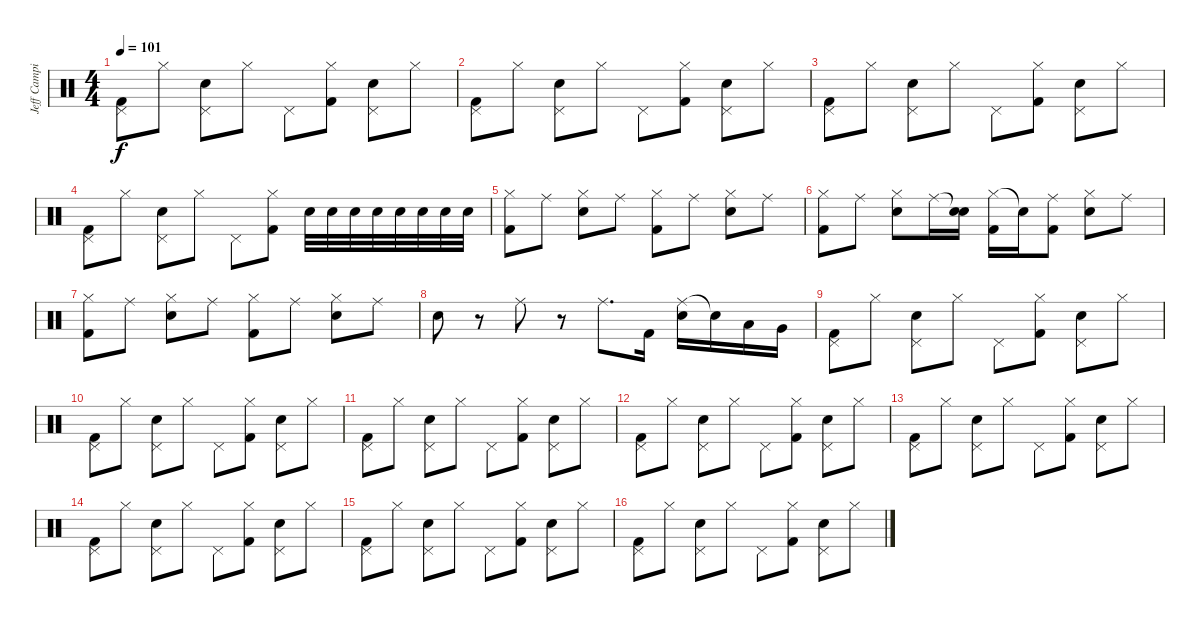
\track ("Jeff Campitelli " "Jeff Campi") {instrument percussion}
\staff {score}
\articulation defaults
\ts (4 4)
\tempo 101
\clef neutral
\ks c
("Pedal Hi-Hat (hit)" "Kick (hit) 2").8{dy f} "Hi-Hat (closed)".8 ("Pedal Hi-Hat (hit)" "Electric Snare (hit)").8 "Hi-Hat (closed)".8 "Pedal Hi-Hat (hit)".8 ("Hi-Hat (closed)" "Kick (hit) 2").8 ("Pedal Hi-Hat (hit)" "Electric Snare (hit)").8 "Hi-Hat (closed)".8 |
("Pedal Hi-Hat (hit)" "Kick (hit) 2").8 "Hi-Hat (closed)".8 ("Pedal Hi-Hat (hit)" "Electric Snare (hit)").8 "Hi-Hat (closed)".8 "Pedal Hi-Hat (hit)".8 ("Hi-Hat (closed)" "Kick (hit) 2").8 ("Pedal Hi-Hat (hit)" "Electric Snare (hit)").8 "Hi-Hat (closed)".8 |
("Pedal Hi-Hat (hit)" "Kick (hit) 2").8 "Hi-Hat (closed)".8 ("Pedal Hi-Hat (hit)" "Electric Snare (hit)").8 "Hi-Hat (closed)".8 "Pedal Hi-Hat (hit)".8 ("Hi-Hat (closed)" "Kick (hit) 2").8 ("Pedal Hi-Hat (hit)" "Electric Snare (hit)").8 "Hi-Hat (closed)".8 |
("Pedal Hi-Hat (hit)" "Kick (hit) 2").8 "Hi-Hat (closed)".8 ("Pedal Hi-Hat (hit)" "Electric Snare (hit)").8 "Hi-Hat (closed)".8 "Pedal Hi-Hat (hit)".8 ("Hi-Hat (closed)" "Kick (hit) 2").8 "Electric Snare (hit)".32 "Electric Snare (hit)".32 "Electric Snare (hit)".32 "Electric Snare (hit)".32 "Electric Snare (hit)".32 "Electric Snare (hit)".32 "Electric Snare (hit)".32 "Electric Snare (hit)".32 |
("Hi-Hat (closed)" "Kick (hit) 2").8 "Ride (middle)".8 ("Hi-Hat (closed)" "Electric Snare (hit)").8 "Ride (middle)".8 ("Hi-Hat (closed)" "Kick (hit) 2").8 "Ride (middle)".8 ("Hi-Hat (closed)" "Electric Snare (hit)").8 "Ride (middle)".8 |
("Hi-Hat (closed)" "Kick (hit) 2").8 "Ride (middle)".8 ("Hi-Hat (closed)" "Electric Snare (hit)").8 "Ride (middle)".16 ("Snare (hit)"{t} "Electric Snare (hit)").16 ("Hi-Hat (closed)" "Kick (hit) 2").16 "Snare (hit)"{t}.16 ("Ride (middle)" "Kick (hit) 2").8 ("Hi-Hat (closed)" "Electric Snare (hit)").8 "Ride (middle)".8 |
("Hi-Hat (closed)" "Kick (hit) 2").8 "Ride (middle)".8 ("Hi-Hat (closed)" "Electric Snare (hit)").8 "Ride (middle)".8 ("Hi-Hat (closed)" "Kick (hit) 2").8 "Ride (middle)".8 ("Hi-Hat (closed)" "Electric Snare (hit)").8 "Ride (middle)".8 |
"Electric Snare (hit)".8 r.8 "Ride (middle)".8 r.8 "Ride (middle)".8{d} "Kick (hit) 2".16 ("Ride (middle)" "Electric Snare (hit)").16 "Electric Snare (hit)"{t}.16 "Low Tom (hit)".16 "Very Low Tom (hit)".16 |
("Pedal Hi-Hat (hit)" "Kick (hit) 2").8 "Hi-Hat (closed)".8 ("Pedal Hi-Hat (hit)" "Electric Snare (hit)").8 "Hi-Hat (closed)".8 "Pedal Hi-Hat (hit)".8 ("Hi-Hat (closed)" "Kick (hit) 2").8 ("Pedal Hi-Hat (hit)" "Electric Snare (hit)").8 "Hi-Hat (closed)".8 |
("Pedal Hi-Hat (hit)" "Kick (hit) 2").8 "Hi-Hat (closed)".8 ("Pedal Hi-Hat (hit)" "Electric Snare (hit)").8 "Hi-Hat (closed)".8 "Pedal Hi-Hat (hit)".8 ("Hi-Hat (closed)" "Kick (hit) 2").8 ("Pedal Hi-Hat (hit)" "Electric Snare (hit)").8 "Hi-Hat (closed)".8 |
("Pedal Hi-Hat (hit)" "Kick (hit) 2").8 "Hi-Hat (closed)".8 ("Pedal Hi-Hat (hit)" "Electric Snare (hit)").8 "Hi-Hat (closed)".8 "Pedal Hi-Hat (hit)".8 ("Hi-Hat (closed)" "Kick (hit) 2").8 ("Pedal Hi-Hat (hit)" "Electric Snare (hit)").8 "Hi-Hat (closed)".8 |
("Pedal Hi-Hat (hit)" "Kick (hit) 2").8 "Hi-Hat (closed)".8 ("Pedal Hi-Hat (hit)" "Electric Snare (hit)").8 "Hi-Hat (closed)".8 "Pedal Hi-Hat (hit)".8 ("Hi-Hat (closed)" "Kick (hit) 2").8 ("Pedal Hi-Hat (hit)" "Electric Snare (hit)").8 "Hi-Hat (closed)".8 |
("Pedal Hi-Hat (hit)" "Kick (hit) 2").8 "Hi-Hat (closed)".8 ("Pedal Hi-Hat (hit)" "Electric Snare (hit)").8 "Hi-Hat (closed)".8 "Pedal Hi-Hat (hit)".8 ("Hi-Hat (closed)" "Kick (hit) 2").8 ("Pedal Hi-Hat (hit)" "Electric Snare (hit)").8 "Hi-Hat (closed)".8 |
("Pedal Hi-Hat (hit)" "Kick (hit) 2").8 "Hi-Hat (closed)".8 ("Pedal Hi-Hat (hit)" "Electric Snare (hit)").8 "Hi-Hat (closed)".8 "Pedal Hi-Hat (hit)".8 ("Hi-Hat (closed)" "Kick (hit) 2").8 ("Pedal Hi-Hat (hit)" "Electric Snare (hit)").8 "Hi-Hat (closed)".8 |
("Pedal Hi-Hat (hit)" "Kick (hit) 2").8 "Hi-Hat (closed)".8 ("Pedal Hi-Hat (hit)" "Electric Snare (hit)").8 "Hi-Hat (closed)".8 "Pedal Hi-Hat (hit)".8 ("Hi-Hat (closed)" "Kick (hit) 2").8 ("Pedal Hi-Hat (hit)" "Electric Snare (hit)").8 "Hi-Hat (closed)".8 |
("Pedal Hi-Hat (hit)" "Kick (hit) 2").8 "Hi-Hat (closed)".8 ("Pedal Hi-Hat (hit)" "Electric Snare (hit)").8 "Hi-Hat (closed)".8 "Pedal Hi-Hat (hit)".8 ("Hi-Hat (closed)" "Kick (hit) 2").8 ("Pedal Hi-Hat (hit)" "Electric Snare (hit)").8 "Hi-Hat (closed)".8
